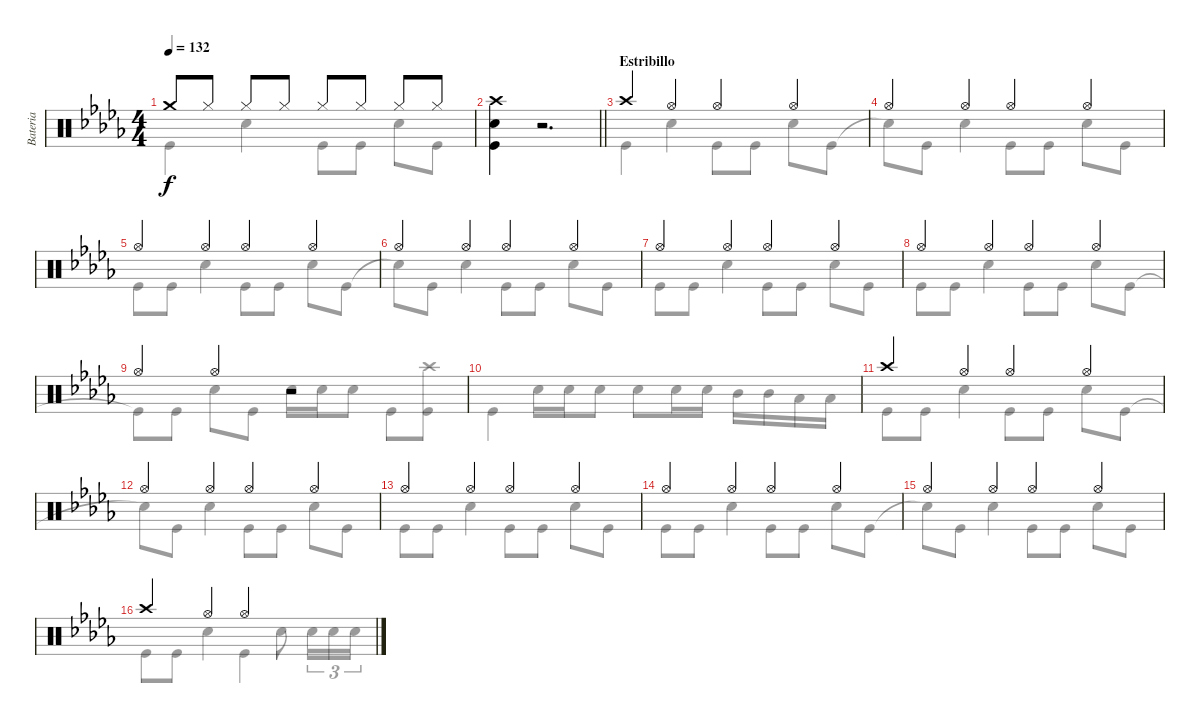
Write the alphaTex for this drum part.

\track ("Bateria" "Bateria") {instrument percussion}
\staff {score}
\articulation defaults
\voice
\ts (4 4)
\tempo 132
\clef neutral
\ks db "Crash medium (hit)".8{dy f} "Hi-Hat (closed)".8 "Hi-Hat (closed)".8 "Hi-Hat (closed)".8 "Hi-Hat (closed)".8 "Hi-Hat (closed)".8 "Hi-Hat (closed)".8 "Hi-Hat (closed)".8
|
\barLineRight lightlight
("Crash high (hit)" "Snare (hit) 2" "Kick (hit)").4 r.2{d} |
\section ("" "Estribillo")
"Crash high (hit)".4 "Hi-Hat (open)".4 "Hi-Hat (open)".4 "Hi-Hat (open)".4 |
"Hi-Hat (open)".4 "Hi-Hat (open)".4 "Hi-Hat (open)".4 "Hi-Hat (open)".4 |
"Hi-Hat (open)".4 "Hi-Hat (open)".4 "Hi-Hat (open)".4 "Hi-Hat (open)".4 |
"Hi-Hat (open)".4 "Hi-Hat (open)".4 "Hi-Hat (open)".4 "Hi-Hat (open)".4 |
"Hi-Hat (open)".4 "Hi-Hat (open)".4 "Hi-Hat (open)".4 "Hi-Hat (open)".4 |
"Hi-Hat (open)".4 "Hi-Hat (open)".4 "Hi-Hat (open)".4 "Hi-Hat (open)".4 |
"Hi-Hat (open)".4 "Hi-Hat (open)".4 r.2 |
|
"Crash high (hit)".4 "Hi-Hat (open)".4 "Hi-Hat (open)".4 "Hi-Hat (open)".4 |
"Hi-Hat (open)".4 "Hi-Hat (open)".4 "Hi-Hat (open)".4 "Hi-Hat (open)".4 |
"Hi-Hat (open)".4 "Hi-Hat (open)".4 "Hi-Hat (open)".4 "Hi-Hat (open)".4 |
"Hi-Hat (open)".4 "Hi-Hat (open)".4 "Hi-Hat (open)".4 "Hi-Hat (open)".4 |
"Hi-Hat (open)".4 "Hi-Hat (open)".4 "Hi-Hat (open)".4 "Hi-Hat (open)".4 |
"Crash high (hit)".4 "Hi-Hat (open)".4 "Hi-Hat (open)".2
\voice
\clef neutral
\ottava regular
\simile none
\ks db "Kick (hit)".4{dy f} "Snare (hit) 2".4 "Kick (hit)".8 "Kick (hit)".8 "Snare (hit) 2".8 "Kick (hit)".8
|
\barLineRight lightlight
|
"Kick (hit)".4 "Snare (hit) 2".4 "Kick (hit)".8 "Kick (hit)".8 "Snare (hit) 2".8 "Kick (hit)".8 |
"Snare (hit)"{t}.8 "Kick (hit)".8 "Snare (hit) 2".4 "Kick (hit)".8 "Kick (hit)".8 "Snare (hit) 2".8 "Kick (hit)".8 |
"Kick (hit)".8 "Kick (hit)".8 "Snare (hit) 2".4 "Kick (hit)".8 "Kick (hit)".8 "Snare (hit) 2".8 "Kick (hit)".8 |
"Snare (hit) 2"{t}.8 "Kick (hit)".8 "Snare (hit) 2".4 "Kick (hit)".8 "Kick (hit)".8 "Snare (hit) 2".8 "Kick (hit)".8 |
"Kick (hit)".8 "Kick (hit)".8 "Snare (hit) 2".4 "Kick (hit)".8 "Kick (hit)".8 "Snare (hit) 2".8 "Kick (hit)".8 |
"Kick (hit)".8 "Kick (hit)".8 "Snare (hit) 2".4 "Kick (hit)".8 "Kick (hit)".8 "Snare (hit) 2".8 "Kick (hit)".8 |
"Kick (hit)"{t}.8 "Kick (hit)".8 "Snare (hit) 2".8 "Kick (hit)".8 "Snare (hit) 2".16 "Snare (hit) 2".16 "Snare (hit) 2".8 "Kick (hit)".8 ("Crash high (hit)" "Kick (hit)").8 |
"Kick (hit)".4 "Snare (hit) 2".16 "Snare (hit) 2".16 "Snare (hit) 2".8 "Snare (hit) 2".8 "Snare (hit) 2".16 "Snare (hit) 2".16 "Mid Tom (hit)".16 "Mid Tom (hit)".16 "Low Tom (hit)".16 "Low Tom (hit)".16 |
"Kick (hit)".8 "Kick (hit)".8 "Snare (hit) 2".4 "Kick (hit)".8 "Kick (hit)".8 "Snare (hit) 2".8 "Kick (hit)".8 |
"Snare (hit)"{t}.8 "Kick (hit)".8 "Snare (hit) 2".4 "Kick (hit)".8 "Kick (hit)".8 "Snare (hit) 2".8 "Kick (hit)".8 |
"Kick (hit)".8 "Kick (hit)".8 "Snare (hit) 2".4 "Kick (hit)".8 "Kick (hit)".8 "Snare (hit) 2".8 "Kick (hit)".8 |
"Kick (hit)".8 "Kick (hit)".8 "Snare (hit) 2".4 "Kick (hit)".8 "Kick (hit)".8 "Snare (hit) 2".8 "Kick (hit)".8 |
"Snare (hit)"{t}.8 "Kick (hit)".8 "Snare (hit) 2".4 "Kick (hit)".8 "Kick (hit)".8 "Snare (hit) 2".8 "Kick (hit)".8 |
"Kick (hit)".8 "Kick (hit)".8 "Snare (hit) 2".4 "Kick (hit)".4 "Snare (hit) 2".8 "Snare (hit) 2".16{tu (3 2)} "Snare (hit) 2".16{tu (3 2)} "Snare (hit) 2".16{tu (3 2)}
